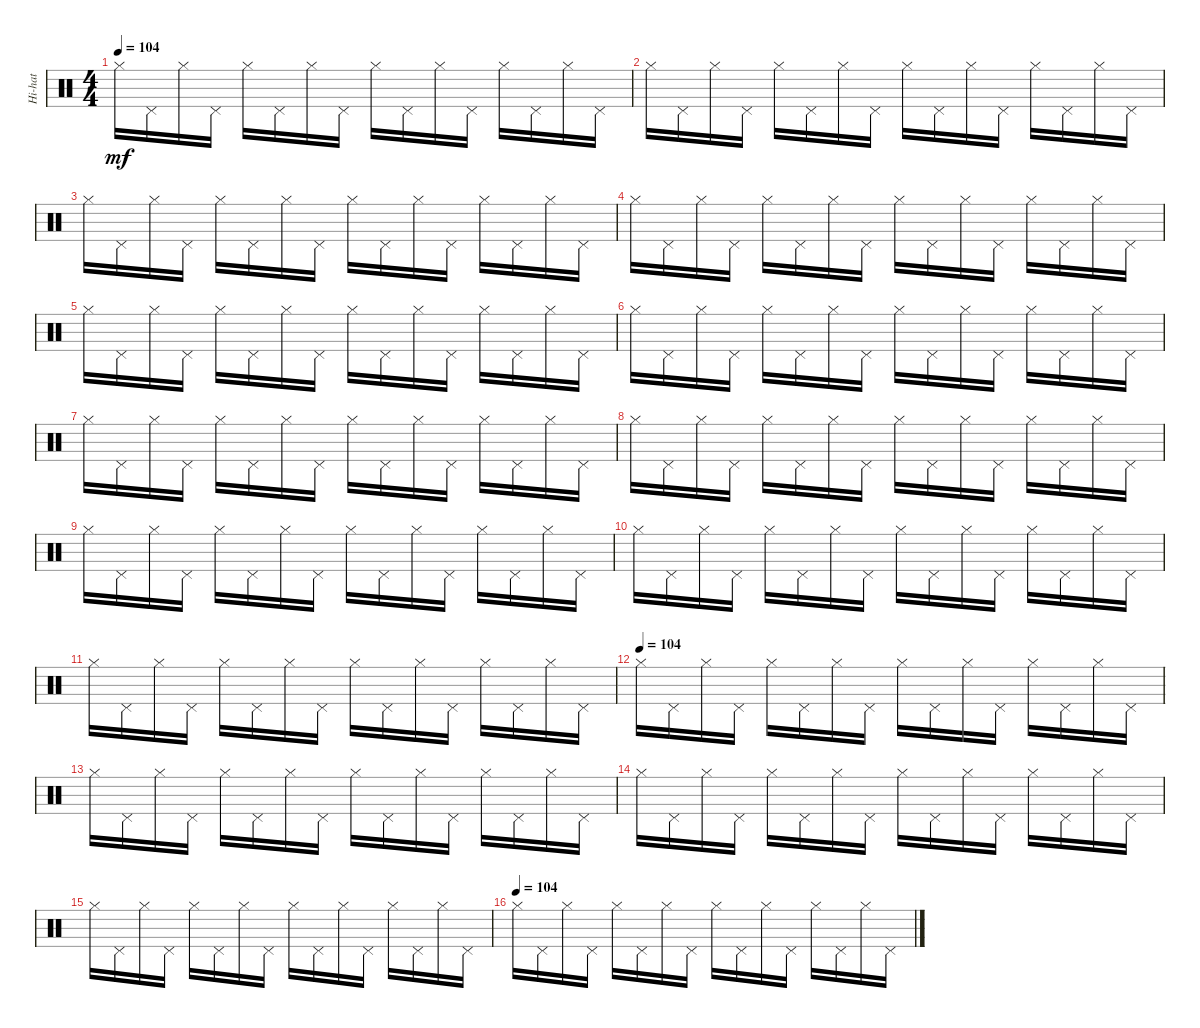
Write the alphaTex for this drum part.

\track ("Hi-hat" "Hi-hat") {instrument percussion}
\staff {score}
\articulation defaults
\ts (4 4)
\tempo 104
\clef neutral
\ks c "Hi-Hat (closed)".16{dy mf} "Pedal Hi-Hat (hit)".16 "Hi-Hat (closed)".16 "Pedal Hi-Hat (hit)".16 "Hi-Hat (closed)".16 "Pedal Hi-Hat (hit)".16 "Hi-Hat (closed)".16 "Pedal Hi-Hat (hit)".16 "Hi-Hat (closed)".16 "Pedal Hi-Hat (hit)".16 "Hi-Hat (closed)".16 "Pedal Hi-Hat (hit)".16 "Hi-Hat (closed)".16 "Pedal Hi-Hat (hit)".16 "Hi-Hat (closed)".16 "Pedal Hi-Hat (hit)".16
|
"Hi-Hat (closed)".16 "Pedal Hi-Hat (hit)".16 "Hi-Hat (closed)".16 "Pedal Hi-Hat (hit)".16 "Hi-Hat (closed)".16 "Pedal Hi-Hat (hit)".16 "Hi-Hat (closed)".16 "Pedal Hi-Hat (hit)".16 "Hi-Hat (closed)".16 "Pedal Hi-Hat (hit)".16 "Hi-Hat (closed)".16 "Pedal Hi-Hat (hit)".16 "Hi-Hat (closed)".16 "Pedal Hi-Hat (hit)".16 "Hi-Hat (closed)".16 "Pedal Hi-Hat (hit)".16 |
"Hi-Hat (closed)".16 "Pedal Hi-Hat (hit)".16 "Hi-Hat (closed)".16 "Pedal Hi-Hat (hit)".16 "Hi-Hat (closed)".16 "Pedal Hi-Hat (hit)".16 "Hi-Hat (closed)".16 "Pedal Hi-Hat (hit)".16 "Hi-Hat (closed)".16 "Pedal Hi-Hat (hit)".16 "Hi-Hat (closed)".16 "Pedal Hi-Hat (hit)".16 "Hi-Hat (closed)".16 "Pedal Hi-Hat (hit)".16 "Hi-Hat (closed)".16 "Pedal Hi-Hat (hit)".16 |
"Hi-Hat (closed)".16 "Pedal Hi-Hat (hit)".16 "Hi-Hat (closed)".16 "Pedal Hi-Hat (hit)".16 "Hi-Hat (closed)".16 "Pedal Hi-Hat (hit)".16 "Hi-Hat (closed)".16 "Pedal Hi-Hat (hit)".16 "Hi-Hat (closed)".16 "Pedal Hi-Hat (hit)".16 "Hi-Hat (closed)".16 "Pedal Hi-Hat (hit)".16 "Hi-Hat (closed)".16 "Pedal Hi-Hat (hit)".16 "Hi-Hat (closed)".16 "Pedal Hi-Hat (hit)".16 |
"Hi-Hat (closed)".16 "Pedal Hi-Hat (hit)".16 "Hi-Hat (closed)".16 "Pedal Hi-Hat (hit)".16 "Hi-Hat (closed)".16 "Pedal Hi-Hat (hit)".16 "Hi-Hat (closed)".16 "Pedal Hi-Hat (hit)".16 "Hi-Hat (closed)".16 "Pedal Hi-Hat (hit)".16 "Hi-Hat (closed)".16 "Pedal Hi-Hat (hit)".16 "Hi-Hat (closed)".16 "Pedal Hi-Hat (hit)".16 "Hi-Hat (closed)".16 "Pedal Hi-Hat (hit)".16 |
"Hi-Hat (closed)".16 "Pedal Hi-Hat (hit)".16 "Hi-Hat (closed)".16 "Pedal Hi-Hat (hit)".16 "Hi-Hat (closed)".16 "Pedal Hi-Hat (hit)".16 "Hi-Hat (closed)".16 "Pedal Hi-Hat (hit)".16 "Hi-Hat (closed)".16 "Pedal Hi-Hat (hit)".16 "Hi-Hat (closed)".16 "Pedal Hi-Hat (hit)".16 "Hi-Hat (closed)".16 "Pedal Hi-Hat (hit)".16 "Hi-Hat (closed)".16 "Pedal Hi-Hat (hit)".16 |
"Hi-Hat (closed)".16 "Pedal Hi-Hat (hit)".16 "Hi-Hat (closed)".16 "Pedal Hi-Hat (hit)".16 "Hi-Hat (closed)".16 "Pedal Hi-Hat (hit)".16 "Hi-Hat (closed)".16 "Pedal Hi-Hat (hit)".16 "Hi-Hat (closed)".16 "Pedal Hi-Hat (hit)".16 "Hi-Hat (closed)".16 "Pedal Hi-Hat (hit)".16 "Hi-Hat (closed)".16 "Pedal Hi-Hat (hit)".16 "Hi-Hat (closed)".16 "Pedal Hi-Hat (hit)".16 |
"Hi-Hat (closed)".16 "Pedal Hi-Hat (hit)".16 "Hi-Hat (closed)".16 "Pedal Hi-Hat (hit)".16 "Hi-Hat (closed)".16 "Pedal Hi-Hat (hit)".16 "Hi-Hat (closed)".16 "Pedal Hi-Hat (hit)".16 "Hi-Hat (closed)".16 "Pedal Hi-Hat (hit)".16 "Hi-Hat (closed)".16 "Pedal Hi-Hat (hit)".16 "Hi-Hat (closed)".16 "Pedal Hi-Hat (hit)".16 "Hi-Hat (closed)".16 "Pedal Hi-Hat (hit)".16 |
"Hi-Hat (closed)".16 "Pedal Hi-Hat (hit)".16 "Hi-Hat (closed)".16 "Pedal Hi-Hat (hit)".16 "Hi-Hat (closed)".16 "Pedal Hi-Hat (hit)".16 "Hi-Hat (closed)".16 "Pedal Hi-Hat (hit)".16 "Hi-Hat (closed)".16 "Pedal Hi-Hat (hit)".16 "Hi-Hat (closed)".16 "Pedal Hi-Hat (hit)".16 "Hi-Hat (closed)".16 "Pedal Hi-Hat (hit)".16 "Hi-Hat (closed)".16 "Pedal Hi-Hat (hit)".16 |
"Hi-Hat (closed)".16 "Pedal Hi-Hat (hit)".16 "Hi-Hat (closed)".16 "Pedal Hi-Hat (hit)".16 "Hi-Hat (closed)".16 "Pedal Hi-Hat (hit)".16 "Hi-Hat (closed)".16 "Pedal Hi-Hat (hit)".16 "Hi-Hat (closed)".16 "Pedal Hi-Hat (hit)".16 "Hi-Hat (closed)".16 "Pedal Hi-Hat (hit)".16 "Hi-Hat (closed)".16 "Pedal Hi-Hat (hit)".16 "Hi-Hat (closed)".16 "Pedal Hi-Hat (hit)".16 |
"Hi-Hat (closed)".16 "Pedal Hi-Hat (hit)".16 "Hi-Hat (closed)".16 "Pedal Hi-Hat (hit)".16 "Hi-Hat (closed)".16 "Pedal Hi-Hat (hit)".16 "Hi-Hat (closed)".16 "Pedal Hi-Hat (hit)".16 "Hi-Hat (closed)".16 "Pedal Hi-Hat (hit)".16 "Hi-Hat (closed)".16 "Pedal Hi-Hat (hit)".16 "Hi-Hat (closed)".16 "Pedal Hi-Hat (hit)".16 "Hi-Hat (closed)".16 "Pedal Hi-Hat (hit)".16 |
\tempo (104)
"Hi-Hat (closed)".16 "Pedal Hi-Hat (hit)".16 "Hi-Hat (closed)".16 "Pedal Hi-Hat (hit)".16 "Hi-Hat (closed)".16 "Pedal Hi-Hat (hit)".16 "Hi-Hat (closed)".16 "Pedal Hi-Hat (hit)".16 "Hi-Hat (closed)".16 "Pedal Hi-Hat (hit)".16 "Hi-Hat (closed)".16 "Pedal Hi-Hat (hit)".16 "Hi-Hat (closed)".16 "Pedal Hi-Hat (hit)".16 "Hi-Hat (closed)".16 "Pedal Hi-Hat (hit)".16 |
"Hi-Hat (closed)".16 "Pedal Hi-Hat (hit)".16 "Hi-Hat (closed)".16 "Pedal Hi-Hat (hit)".16 "Hi-Hat (closed)".16 "Pedal Hi-Hat (hit)".16 "Hi-Hat (closed)".16 "Pedal Hi-Hat (hit)".16 "Hi-Hat (closed)".16 "Pedal Hi-Hat (hit)".16 "Hi-Hat (closed)".16 "Pedal Hi-Hat (hit)".16 "Hi-Hat (closed)".16 "Pedal Hi-Hat (hit)".16 "Hi-Hat (closed)".16 "Pedal Hi-Hat (hit)".16 |
"Hi-Hat (closed)".16 "Pedal Hi-Hat (hit)".16 "Hi-Hat (closed)".16 "Pedal Hi-Hat (hit)".16 "Hi-Hat (closed)".16 "Pedal Hi-Hat (hit)".16 "Hi-Hat (closed)".16 "Pedal Hi-Hat (hit)".16 "Hi-Hat (closed)".16 "Pedal Hi-Hat (hit)".16 "Hi-Hat (closed)".16 "Pedal Hi-Hat (hit)".16 "Hi-Hat (closed)".16 "Pedal Hi-Hat (hit)".16 "Hi-Hat (closed)".16 "Pedal Hi-Hat (hit)".16 |
"Hi-Hat (closed)".16 "Pedal Hi-Hat (hit)".16 "Hi-Hat (closed)".16 "Pedal Hi-Hat (hit)".16 "Hi-Hat (closed)".16 "Pedal Hi-Hat (hit)".16 "Hi-Hat (closed)".16 "Pedal Hi-Hat (hit)".16 "Hi-Hat (closed)".16 "Pedal Hi-Hat (hit)".16 "Hi-Hat (closed)".16 "Pedal Hi-Hat (hit)".16 "Hi-Hat (closed)".16 "Pedal Hi-Hat (hit)".16 "Hi-Hat (closed)".16 "Pedal Hi-Hat (hit)".16 |
\tempo (104)
"Hi-Hat (closed)".16 "Pedal Hi-Hat (hit)".16 "Hi-Hat (closed)".16 "Pedal Hi-Hat (hit)".16 "Hi-Hat (closed)".16 "Pedal Hi-Hat (hit)".16 "Hi-Hat (closed)".16 "Pedal Hi-Hat (hit)".16 "Hi-Hat (closed)".16 "Pedal Hi-Hat (hit)".16 "Hi-Hat (closed)".16 "Pedal Hi-Hat (hit)".16 "Hi-Hat (closed)".16 "Pedal Hi-Hat (hit)".16 "Hi-Hat (closed)".16 "Pedal Hi-Hat (hit)".16
